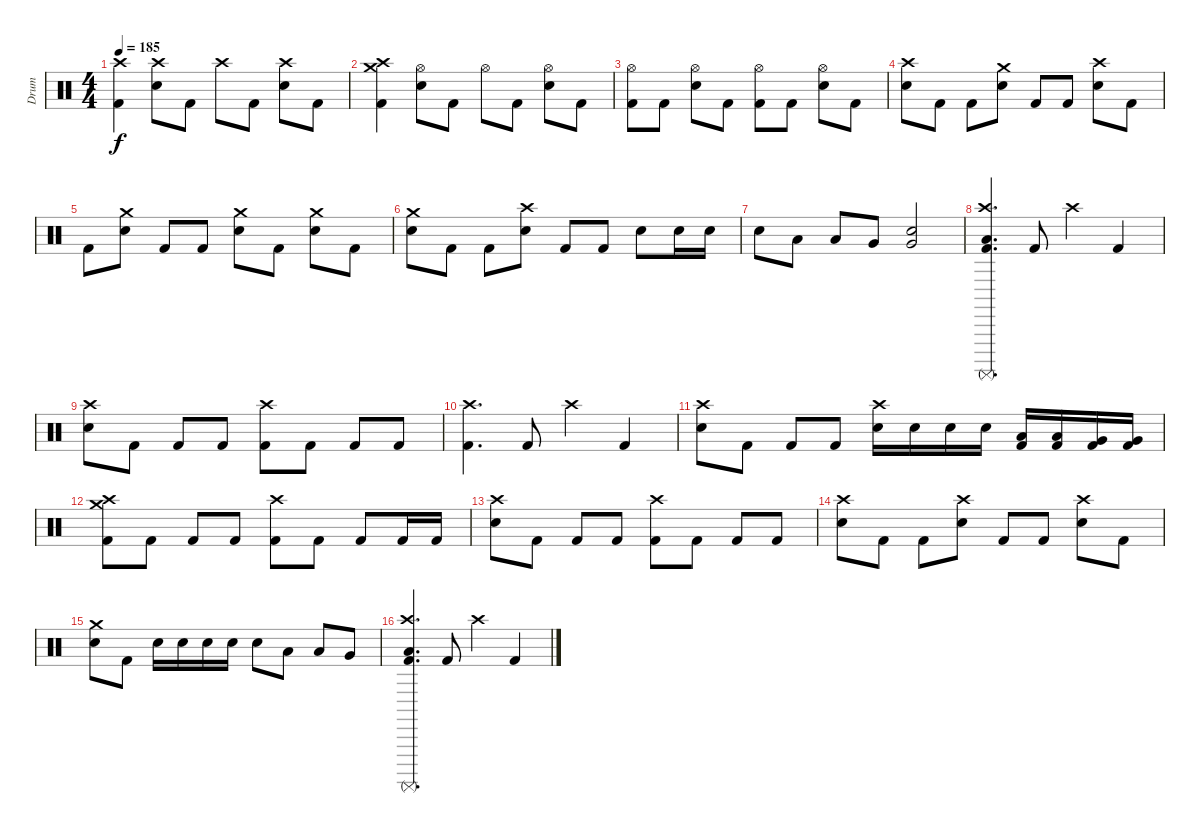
\track ("Drum" "Drum") {instrument percussion}
\staff
\articulation defaults
\ts (4 4)
\tempo 185
\clef neutral
\ks c
("Crash high (hit)" "Kick (hit) 2").4{dy f} ("Crash high (hit)" "Electric Snare (hit)").8 "Kick (hit) 2".8 "Crash high (hit)".8 "Kick (hit) 2".8 ("Crash high (hit)" "Electric Snare (hit)").8 "Kick (hit) 2".8 |
("Crash high (hit)" "Crash medium (hit)" "Kick (hit) 2").4 ("Hi-Hat (open)" "Electric Snare (hit)").8 "Kick (hit) 2".8 "Hi-Hat (open)".8 "Kick (hit) 2".8 ("Hi-Hat (open)" "Electric Snare (hit)").8 "Kick (hit) 2".8 |
("Hi-Hat (open)" "Kick (hit) 2").8 "Kick (hit) 2".8 ("Hi-Hat (open)" "Electric Snare (hit)").8 "Kick (hit) 2".8 ("Hi-Hat (open)" "Kick (hit) 2").8 "Kick (hit) 2".8 ("Hi-Hat (open)" "Electric Snare (hit)").8 "Kick (hit) 2".8 |
("Crash high (hit)" "Electric Snare (hit)").8 "Kick (hit) 2".8 "Kick (hit) 2".8 ("Crash medium (hit)" "Electric Snare (hit)").8 "Kick (hit) 2".8 "Kick (hit) 2".8 ("Crash high (hit)" "Electric Snare (hit)").8 "Kick (hit) 2".8 |
"Kick (hit) 2".8 ("Crash medium (hit)" "Electric Snare (hit)").8 "Kick (hit) 2".8 "Kick (hit) 2".8 ("Crash medium (hit)" "Electric Snare (hit)").8 "Kick (hit) 2".8 ("Crash medium (hit)" "Electric Snare (hit)").8 "Kick (hit) 2".8 |
("Crash medium (hit)" "Electric Snare (hit)").8 "Kick (hit) 2".8 "Kick (hit) 2".8 ("Crash high (hit)" "Electric Snare (hit)").8 "Kick (hit) 2".8 "Kick (hit) 2".8 "Electric Snare (hit)".8 "Electric Snare (hit)".16 "Electric Snare (hit)".16 |
"Electric Snare (hit)".8 "Low Tom (hit)".8 "Low Tom (hit)".8 "Very Low Tom (hit)".8 ("Very Low Tom (hit)" "Electric Snare (hit)").2 |
("Crash high (hit)" "Surdo (mute)" "Low Tom (hit)" "Kick (hit) 2").4{d} "Kick (hit) 2".8 "Crash high (hit)".4 "Kick (hit) 2".4 |
("Crash high (hit)" "Electric Snare (hit)").8 "Kick (hit) 2".8 "Kick (hit) 2".8 "Kick (hit) 2".8 ("Crash high (hit)" "Kick (hit) 2").8 "Kick (hit) 2".8 "Kick (hit) 2".8 "Kick (hit) 2".8 |
("Crash high (hit)" "Kick (hit) 2").4{d} "Kick (hit) 2".8 "Crash high (hit)".4 "Kick (hit) 2".4 |
("Crash high (hit)" "Electric Snare (hit)").8 "Kick (hit) 2".8 "Kick (hit) 2".8 "Kick (hit) 2".8 ("Crash high (hit)" "Electric Snare (hit)").16 "Electric Snare (hit)".16 "Electric Snare (hit)".16 "Electric Snare (hit)".16 ("Low Tom (hit)" "Kick (hit) 2").16 ("Low Tom (hit)" "Kick (hit) 2").16 ("Very Low Tom (hit)" "Kick (hit) 2").16 ("Very Low Tom (hit)" "Kick (hit) 2").16 |
("Crash high (hit)" "Crash medium (hit)" "Kick (hit) 2").8 "Kick (hit) 2".8 "Kick (hit) 2".8 "Kick (hit) 2".8 ("Crash high (hit)" "Kick (hit) 2").8 "Kick (hit) 2".8 "Kick (hit) 2".8 "Kick (hit) 2".16 "Kick (hit) 2".16 |
("Crash high (hit)" "Electric Snare (hit)").8 "Kick (hit) 2".8 "Kick (hit) 2".8 "Kick (hit) 2".8 ("Crash high (hit)" "Kick (hit) 2").8 "Kick (hit) 2".8 "Kick (hit) 2".8 "Kick (hit) 2".8 |
("Crash high (hit)" "Electric Snare (hit)").8 "Kick (hit) 2".8 "Kick (hit) 2".8 ("Crash high (hit)" "Electric Snare (hit)").8 "Kick (hit) 2".8 "Kick (hit) 2".8 ("Crash high (hit)" "Electric Snare (hit)").8 "Kick (hit) 2".8 |
("Crash medium (hit)" "Electric Snare (hit)").8 "Kick (hit) 2".8 "Electric Snare (hit)".16 "Electric Snare (hit)".16 "Electric Snare (hit)".16 "Electric Snare (hit)".16 "Electric Snare (hit)".8 "Low Tom (hit)".8 "Low Tom (hit)".8 "Very Low Tom (hit)".8 |
("Crash high (hit)" "Surdo (mute)" "Low Tom (hit)" "Kick (hit) 2").4{d} "Kick (hit) 2".8 "Crash high (hit)".4 "Kick (hit) 2".4
